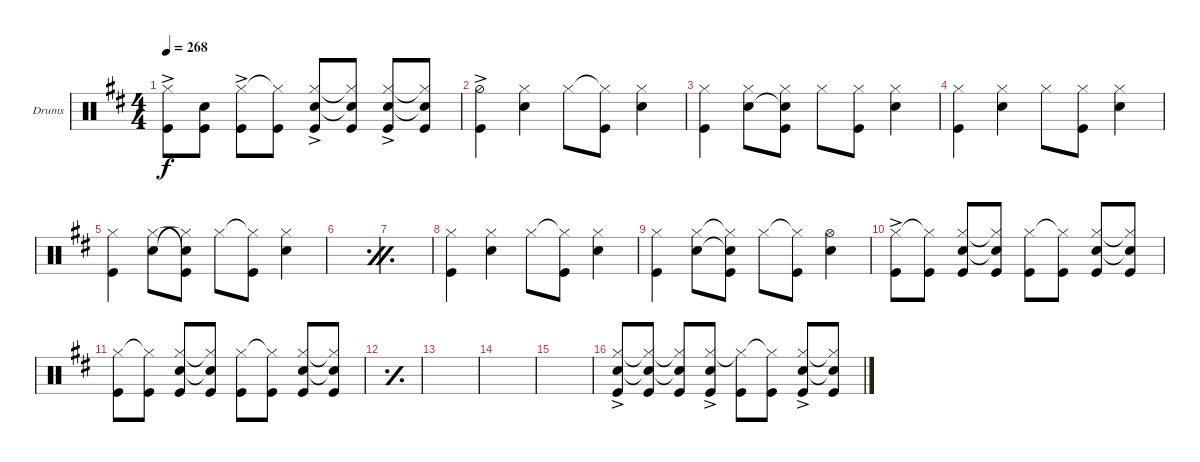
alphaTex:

\defaultSystemsLayout 4
\bracketExtendMode groupsimilarinstruments
\firstSystemTrackNameOrientation horizontal
\otherSystemsTrackNameOrientation horizontal
\track ("Stefan Kaufmann" "Drums") {instrument percussion}
\staff {score}
\articulation defaults
\ts (4 4)
\tempo 268
\clef neutral
\ks d
("Kick (hit)"{ac} "Hi-Hat (closed)"{ac}).8{dy f} ("Kick (hit)" "Snare (hit) 2").8 ("Kick (hit)"{ac} "Hi-Hat (closed)"{ac}).8 ("Kick (hit)" "Hi-Hat (closed)"{t}).8 ("Kick (hit)"{ac} "Hi-Hat (closed)"{ac} "Snare (hit) 2"{ac}).8 ("Kick (hit)" "Hi-Hat (closed)"{t} "Snare (hit) 2"{t}).8 ("Kick (hit)"{ac} "Hi-Hat (closed)"{ac} "Snare (hit) 2"{ac}).8 ("Kick (hit)" "Hi-Hat (closed)"{t} "Snare (hit) 2"{t}).8 |
("Kick (hit)"{ac} "Hi-Hat (half)"{ac}).4 ("Snare (hit) 2" "Hi-Hat (closed)").4 "Hi-Hat (closed)".8 ("Hi-Hat (closed)"{t} "Kick (hit)").8 ("Hi-Hat (closed)" "Snare (hit) 2").4 |
("Kick (hit)" "Hi-Hat (closed)").4 ("Hi-Hat (closed)" "Snare (hit) 2").8 ("Hi-Hat (closed)" "Snare (hit) 2"{t} "Kick (hit)").8 "Hi-Hat (closed)".8 ("Hi-Hat (closed)" "Kick (hit)").8 ("Hi-Hat (closed)" "Snare (hit) 2").4 |
("Hi-Hat (closed)" "Kick (hit)").4 ("Snare (hit) 2" "Hi-Hat (closed)").4 "Hi-Hat (closed)".8 ("Hi-Hat (closed)" "Kick (hit)").8 ("Snare (hit) 2" "Hi-Hat (closed)").4 |
("Hi-Hat (closed)" "Kick (hit)").4 ("Snare (hit) 2" "Hi-Hat (closed)").8 ("Hi-Hat (closed)"{t} "Snare (hit) 2"{t} "Kick (hit)").8 "Hi-Hat (closed)".8 ("Hi-Hat (closed)"{t} "Kick (hit)").8 ("Snare (hit) 2" "Hi-Hat (closed)").4 |
\simile firstofdouble
|
\simile secondofdouble
|
\simile none
("Kick (hit)" "Hi-Hat (closed)").4 ("Hi-Hat (closed)" "Snare (hit) 2").4 "Hi-Hat (closed)".8 ("Hi-Hat (closed)"{t} "Kick (hit)").8 ("Hi-Hat (closed)" "Snare (hit) 2").4 |
("Hi-Hat (closed)" "Kick (hit)").4 ("Hi-Hat (closed)" "Snare (hit) 2").8 ("Hi-Hat (closed)"{t} "Snare (hit) 2"{t} "Kick (hit)").8 "Hi-Hat (closed)".8 ("Hi-Hat (closed)"{t} "Kick (hit)").8 ("Hi-Hat (open)" "Snare (hit) 2").4 |
("Hi-Hat (closed)"{ac} "Kick (hit)"{ac}).8 ("Hi-Hat (closed)"{t} "Kick (hit)").8 ("Hi-Hat (closed)" "Snare (hit) 2" "Kick (hit)").8 ("Hi-Hat (closed)"{t} "Snare (hit) 2"{t} "Kick (hit)").8 ("Hi-Hat (closed)" "Kick (hit)").8 ("Hi-Hat (closed)"{t} "Kick (hit)").8 ("Hi-Hat (closed)" "Snare (hit) 2" "Kick (hit)").8 ("Hi-Hat (closed)"{t} "Snare (hit) 2"{t} "Kick (hit)").8 |
("Kick (hit)" "Hi-Hat (closed)").8 ("Kick (hit)" "Hi-Hat (closed)"{t}).8 ("Kick (hit)" "Hi-Hat (closed)" "Snare (hit) 2").8 ("Kick (hit)" "Hi-Hat (closed)"{t} "Snare (hit) 2"{t}).8 ("Kick (hit)" "Hi-Hat (closed)").8 ("Kick (hit)" "Hi-Hat (closed)"{t}).8 ("Kick (hit)" "Hi-Hat (closed)" "Snare (hit) 2").8 ("Kick (hit)" "Hi-Hat (closed)"{t} "Snare (hit) 2"{t}).8 |
\simile simple
|
|
|
|
\simile none
("Kick (hit)"{ac} "Snare (hit) 2"{ac} "Hi-Hat (closed)"{ac}).8 ("Kick (hit)" "Snare (hit) 2"{t} "Hi-Hat (closed)"{t}).8 ("Kick (hit)" "Snare (hit) 2"{t} "Hi-Hat (closed)"{t}).8 ("Kick (hit)"{ac} "Hi-Hat (closed)"{ac} "Snare (hit) 2"{ac}).8 ("Kick (hit)" "Hi-Hat (closed)"{t}).8 ("Kick (hit)" "Hi-Hat (closed)"{t}).8 ("Kick (hit)"{ac} "Hi-Hat (closed)"{ac} "Snare (hit) 2"{ac}).8 ("Kick (hit)" "Hi-Hat (closed)"{t} "Snare (hit) 2"{t}).8
